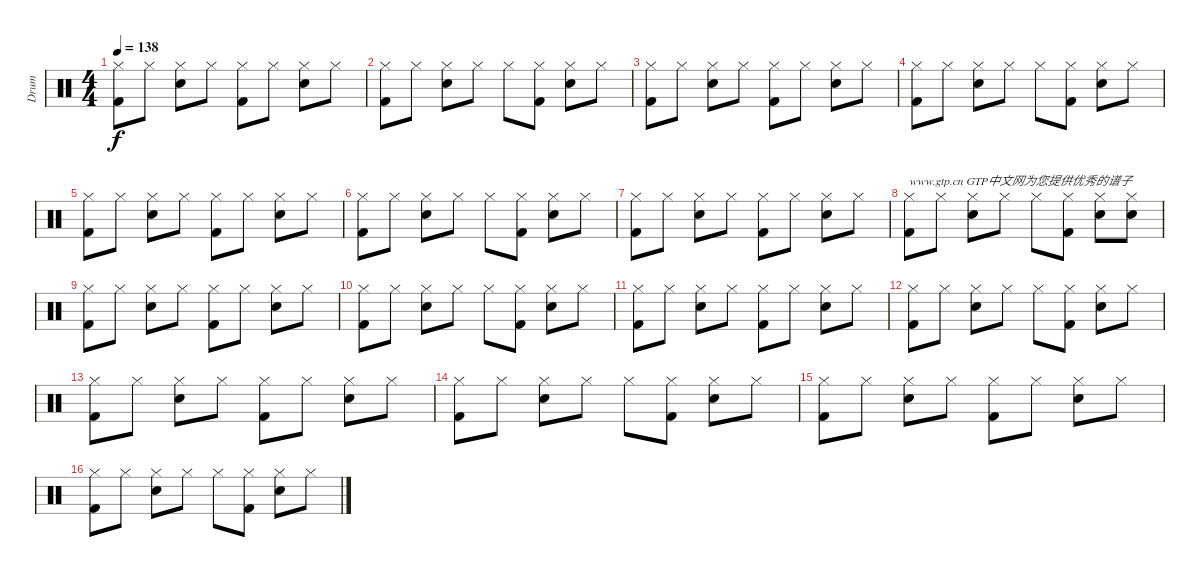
\track ("Drum" "Drum") {instrument percussion}
\staff {score}
\articulation defaults
\ts (4 4)
\tempo 138
\clef neutral
\ks c
("Hi-Hat (closed)" "Kick (hit) 2").8{dy f} "Hi-Hat (closed)".8 ("Hi-Hat (closed)" "Snare (hit) 2").8 "Hi-Hat (closed)".8 ("Hi-Hat (closed)" "Kick (hit) 2").8 "Hi-Hat (closed)".8 ("Hi-Hat (closed)" "Snare (hit) 2").8 "Hi-Hat (closed)".8 |
("Hi-Hat (closed)" "Kick (hit) 2").8 "Hi-Hat (closed)".8 ("Hi-Hat (closed)" "Snare (hit) 2").8 "Hi-Hat (closed)".8 "Hi-Hat (closed)".8 ("Hi-Hat (closed)" "Kick (hit) 2").8 ("Hi-Hat (closed)" "Snare (hit) 2").8 "Hi-Hat (closed)".8 |
("Hi-Hat (closed)" "Kick (hit) 2").8 "Hi-Hat (closed)".8 ("Hi-Hat (closed)" "Snare (hit) 2").8 "Hi-Hat (closed)".8 ("Hi-Hat (closed)" "Kick (hit) 2").8 "Hi-Hat (closed)".8 ("Hi-Hat (closed)" "Snare (hit) 2").8 "Hi-Hat (closed)".8 |
("Hi-Hat (closed)" "Kick (hit) 2").8 "Hi-Hat (closed)".8 ("Hi-Hat (closed)" "Snare (hit) 2").8 "Hi-Hat (closed)".8 "Hi-Hat (closed)".8 ("Hi-Hat (closed)" "Kick (hit) 2").8 ("Hi-Hat (closed)" "Snare (hit) 2").8 "Hi-Hat (closed)".8 |
("Hi-Hat (closed)" "Kick (hit) 2").8 "Hi-Hat (closed)".8 ("Hi-Hat (closed)" "Snare (hit) 2").8 "Hi-Hat (closed)".8 ("Hi-Hat (closed)" "Kick (hit) 2").8 "Hi-Hat (closed)".8 ("Hi-Hat (closed)" "Snare (hit) 2").8 "Hi-Hat (closed)".8 |
("Hi-Hat (closed)" "Kick (hit) 2").8 "Hi-Hat (closed)".8 ("Hi-Hat (closed)" "Snare (hit) 2").8 "Hi-Hat (closed)".8 "Hi-Hat (closed)".8 ("Hi-Hat (closed)" "Kick (hit) 2").8 ("Hi-Hat (closed)" "Snare (hit) 2").8 "Hi-Hat (closed)".8 |
("Hi-Hat (closed)" "Kick (hit) 2").8 "Hi-Hat (closed)".8 ("Hi-Hat (closed)" "Snare (hit) 2").8 "Hi-Hat (closed)".8 ("Hi-Hat (closed)" "Kick (hit) 2").8 "Hi-Hat (closed)".8 ("Hi-Hat (closed)" "Snare (hit) 2").8 "Hi-Hat (closed)".8 |
("Hi-Hat (closed)" "Kick (hit) 2").8{txt "www.gtp.cn GTP中文网为您提供优秀的谱子"} "Hi-Hat (closed)".8 ("Hi-Hat (closed)" "Snare (hit) 2").8 "Hi-Hat (closed)".8 "Hi-Hat (closed)".8 ("Hi-Hat (closed)" "Kick (hit) 2").8 ("Hi-Hat (closed)" "Snare (hit) 2").8 ("Hi-Hat (closed)" "Snare (hit) 2").8 |
("Hi-Hat (closed)" "Kick (hit) 2").8 "Hi-Hat (closed)".8 ("Hi-Hat (closed)" "Snare (hit) 2").8 "Hi-Hat (closed)".8 ("Hi-Hat (closed)" "Kick (hit) 2").8 "Hi-Hat (closed)".8 ("Hi-Hat (closed)" "Snare (hit) 2").8 "Hi-Hat (closed)".8 |
("Hi-Hat (closed)" "Kick (hit) 2").8 "Hi-Hat (closed)".8 ("Hi-Hat (closed)" "Snare (hit) 2").8 "Hi-Hat (closed)".8 "Hi-Hat (closed)".8 ("Hi-Hat (closed)" "Kick (hit) 2").8 ("Hi-Hat (closed)" "Snare (hit) 2").8 "Hi-Hat (closed)".8 |
("Hi-Hat (closed)" "Kick (hit) 2").8 "Hi-Hat (closed)".8 ("Hi-Hat (closed)" "Snare (hit) 2").8 "Hi-Hat (closed)".8 ("Hi-Hat (closed)" "Kick (hit) 2").8 "Hi-Hat (closed)".8 ("Hi-Hat (closed)" "Snare (hit) 2").8 "Hi-Hat (closed)".8 |
("Hi-Hat (closed)" "Kick (hit) 2").8 "Hi-Hat (closed)".8 ("Hi-Hat (closed)" "Snare (hit) 2").8 "Hi-Hat (closed)".8 "Hi-Hat (closed)".8 ("Hi-Hat (closed)" "Kick (hit) 2").8 ("Hi-Hat (closed)" "Snare (hit) 2").8 "Hi-Hat (closed)".8 |
("Hi-Hat (closed)" "Kick (hit) 2").8 "Hi-Hat (closed)".8 ("Hi-Hat (closed)" "Snare (hit) 2").8 "Hi-Hat (closed)".8 ("Hi-Hat (closed)" "Kick (hit) 2").8 "Hi-Hat (closed)".8 ("Hi-Hat (closed)" "Snare (hit) 2").8 "Hi-Hat (closed)".8 |
("Hi-Hat (closed)" "Kick (hit) 2").8 "Hi-Hat (closed)".8 ("Hi-Hat (closed)" "Snare (hit) 2").8 "Hi-Hat (closed)".8 "Hi-Hat (closed)".8 ("Hi-Hat (closed)" "Kick (hit) 2").8 ("Hi-Hat (closed)" "Snare (hit) 2").8 "Hi-Hat (closed)".8 |
("Hi-Hat (closed)" "Kick (hit) 2").8 "Hi-Hat (closed)".8 ("Hi-Hat (closed)" "Snare (hit) 2").8 "Hi-Hat (closed)".8 ("Hi-Hat (closed)" "Kick (hit) 2").8 "Hi-Hat (closed)".8 ("Hi-Hat (closed)" "Snare (hit) 2").8 "Hi-Hat (closed)".8 |
("Hi-Hat (closed)" "Kick (hit) 2").8 "Hi-Hat (closed)".8 ("Hi-Hat (closed)" "Snare (hit) 2").8 "Hi-Hat (closed)".8 "Hi-Hat (closed)".8 ("Hi-Hat (closed)" "Kick (hit) 2").8 ("Hi-Hat (closed)" "Snare (hit) 2").8 "Hi-Hat (closed)".8
